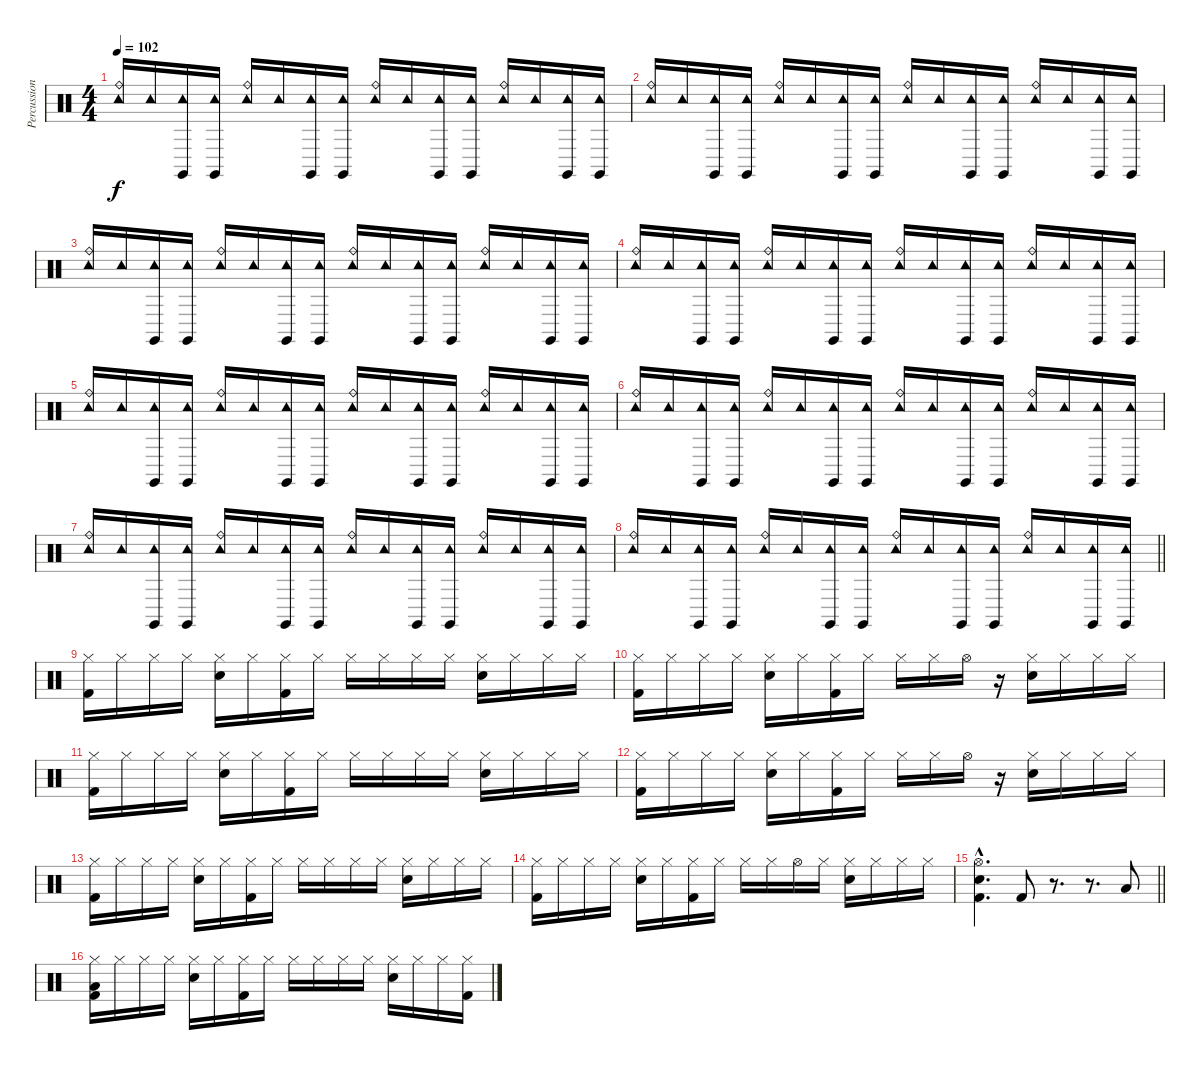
\track ("Percussions" "Percussion") {instrument percussion}
\staff {score}
\articulation defaults
\ts (4 4)
\tempo 102
\clef neutral
\ks c
("Tambourine (hit)" "Ride (bell)").16{dy f} "Tambourine (hit)".16 ("Tambourine (hit)" "Claves (hit)").16 ("Tambourine (hit)" "Claves (hit)").16 ("Tambourine (hit)" "Ride (bell)").16 "Tambourine (hit)".16 ("Tambourine (hit)" "Claves (hit)").16 ("Tambourine (hit)" "Claves (hit)").16 ("Tambourine (hit)" "Ride (bell)").16 "Tambourine (hit)".16 ("Tambourine (hit)" "Claves (hit)").16 ("Tambourine (hit)" "Claves (hit)").16 ("Tambourine (hit)" "Ride (bell)").16 "Tambourine (hit)".16 ("Tambourine (hit)" "Claves (hit)").16 ("Tambourine (hit)" "Claves (hit)").16 |
("Tambourine (hit)" "Ride (bell)").16 "Tambourine (hit)".16 ("Tambourine (hit)" "Claves (hit)").16 ("Tambourine (hit)" "Claves (hit)").16 ("Tambourine (hit)" "Ride (bell)").16 "Tambourine (hit)".16 ("Tambourine (hit)" "Claves (hit)").16 ("Tambourine (hit)" "Claves (hit)").16 ("Tambourine (hit)" "Ride (bell)").16 "Tambourine (hit)".16 ("Tambourine (hit)" "Claves (hit)").16 ("Tambourine (hit)" "Claves (hit)").16 ("Tambourine (hit)" "Ride (bell)").16 "Tambourine (hit)".16 ("Tambourine (hit)" "Claves (hit)").16 ("Tambourine (hit)" "Claves (hit)").16 |
("Tambourine (hit)" "Ride (bell)").16 "Tambourine (hit)".16 ("Tambourine (hit)" "Claves (hit)").16 ("Tambourine (hit)" "Claves (hit)").16 ("Tambourine (hit)" "Ride (bell)").16 "Tambourine (hit)".16 ("Tambourine (hit)" "Claves (hit)").16 ("Tambourine (hit)" "Claves (hit)").16 ("Tambourine (hit)" "Ride (bell)").16 "Tambourine (hit)".16 ("Tambourine (hit)" "Claves (hit)").16 ("Tambourine (hit)" "Claves (hit)").16 ("Tambourine (hit)" "Ride (bell)").16 "Tambourine (hit)".16 ("Tambourine (hit)" "Claves (hit)").16 ("Tambourine (hit)" "Claves (hit)").16 |
("Tambourine (hit)" "Ride (bell)").16 "Tambourine (hit)".16 ("Tambourine (hit)" "Claves (hit)").16 ("Tambourine (hit)" "Claves (hit)").16 ("Tambourine (hit)" "Ride (bell)").16 "Tambourine (hit)".16 ("Tambourine (hit)" "Claves (hit)").16 ("Tambourine (hit)" "Claves (hit)").16 ("Tambourine (hit)" "Ride (bell)").16 "Tambourine (hit)".16 ("Tambourine (hit)" "Claves (hit)").16 ("Tambourine (hit)" "Claves (hit)").16 ("Tambourine (hit)" "Ride (bell)").16 "Tambourine (hit)".16 ("Tambourine (hit)" "Claves (hit)").16 ("Tambourine (hit)" "Claves (hit)").16 |
("Tambourine (hit)" "Ride (bell)").16 "Tambourine (hit)".16 ("Tambourine (hit)" "Claves (hit)").16 ("Tambourine (hit)" "Claves (hit)").16 ("Tambourine (hit)" "Ride (bell)").16 "Tambourine (hit)".16 ("Tambourine (hit)" "Claves (hit)").16 ("Tambourine (hit)" "Claves (hit)").16 ("Tambourine (hit)" "Ride (bell)").16 "Tambourine (hit)".16 ("Tambourine (hit)" "Claves (hit)").16 ("Tambourine (hit)" "Claves (hit)").16 ("Tambourine (hit)" "Ride (bell)").16 "Tambourine (hit)".16 ("Tambourine (hit)" "Claves (hit)").16 ("Tambourine (hit)" "Claves (hit)").16 |
("Tambourine (hit)" "Ride (bell)").16 "Tambourine (hit)".16 ("Tambourine (hit)" "Claves (hit)").16 ("Tambourine (hit)" "Claves (hit)").16 ("Tambourine (hit)" "Ride (bell)").16 "Tambourine (hit)".16 ("Tambourine (hit)" "Claves (hit)").16 ("Tambourine (hit)" "Claves (hit)").16 ("Tambourine (hit)" "Ride (bell)").16 "Tambourine (hit)".16 ("Tambourine (hit)" "Claves (hit)").16 ("Tambourine (hit)" "Claves (hit)").16 ("Tambourine (hit)" "Ride (bell)").16 "Tambourine (hit)".16 ("Tambourine (hit)" "Claves (hit)").16 ("Tambourine (hit)" "Claves (hit)").16 |
("Tambourine (hit)" "Ride (bell)").16 "Tambourine (hit)".16 ("Tambourine (hit)" "Claves (hit)").16 ("Tambourine (hit)" "Claves (hit)").16 ("Tambourine (hit)" "Ride (bell)").16 "Tambourine (hit)".16 ("Tambourine (hit)" "Claves (hit)").16 ("Tambourine (hit)" "Claves (hit)").16 ("Tambourine (hit)" "Ride (bell)").16 "Tambourine (hit)".16 ("Tambourine (hit)" "Claves (hit)").16 ("Tambourine (hit)" "Claves (hit)").16 ("Tambourine (hit)" "Ride (bell)").16 "Tambourine (hit)".16 ("Tambourine (hit)" "Claves (hit)").16 ("Tambourine (hit)" "Claves (hit)").16 |
\barLineRight lightlight
("Tambourine (hit)" "Ride (bell)").16 "Tambourine (hit)".16 ("Tambourine (hit)" "Claves (hit)").16 ("Tambourine (hit)" "Claves (hit)").16 ("Tambourine (hit)" "Ride (bell)").16 "Tambourine (hit)".16 ("Tambourine (hit)" "Claves (hit)").16 ("Tambourine (hit)" "Claves (hit)").16 ("Tambourine (hit)" "Ride (bell)").16 "Tambourine (hit)".16 ("Tambourine (hit)" "Claves (hit)").16 ("Tambourine (hit)" "Claves (hit)").16 ("Tambourine (hit)" "Ride (bell)").16 "Tambourine (hit)".16 ("Tambourine (hit)" "Claves (hit)").16 ("Tambourine (hit)" "Claves (hit)").16 |
("Hi-Hat (closed)" "Kick (hit) 2").16 "Hi-Hat (closed)".16 "Hi-Hat (closed)".16 "Hi-Hat (closed)".16 ("Snare (hit) 2" "Hi-Hat (closed)").16 "Hi-Hat (closed)".16 ("Hi-Hat (closed)" "Kick (hit) 2").16 "Hi-Hat (closed)".16 "Hi-Hat (closed)".16 "Hi-Hat (closed)".16 "Hi-Hat (closed)".16 "Hi-Hat (closed)".16 ("Snare (hit) 2" "Hi-Hat (closed)").16 "Hi-Hat (closed)".16 "Hi-Hat (closed)".16 "Hi-Hat (closed)".16 |
("Hi-Hat (closed)" "Kick (hit) 2").16 "Hi-Hat (closed)".16 "Hi-Hat (closed)".16 "Hi-Hat (closed)".16 ("Snare (hit) 2" "Hi-Hat (closed)").16 "Hi-Hat (closed)".16 ("Hi-Hat (closed)" "Kick (hit) 2").16 "Hi-Hat (closed)".16 "Hi-Hat (closed)".16 "Hi-Hat (closed)".16 "Hi-Hat (open)".16 r.16 ("Snare (hit) 2" "Hi-Hat (closed)").16 "Hi-Hat (closed)".16 "Hi-Hat (closed)".16 "Hi-Hat (closed)".16 |
("Hi-Hat (closed)" "Kick (hit) 2").16 "Hi-Hat (closed)".16 "Hi-Hat (closed)".16 "Hi-Hat (closed)".16 ("Snare (hit) 2" "Hi-Hat (closed)").16 "Hi-Hat (closed)".16 ("Hi-Hat (closed)" "Kick (hit) 2").16 "Hi-Hat (closed)".16 "Hi-Hat (closed)".16 "Hi-Hat (closed)".16 "Hi-Hat (closed)".16 "Hi-Hat (closed)".16 ("Snare (hit) 2" "Hi-Hat (closed)").16 "Hi-Hat (closed)".16 "Hi-Hat (closed)".16 "Hi-Hat (closed)".16 |
("Hi-Hat (closed)" "Kick (hit) 2").16 "Hi-Hat (closed)".16 "Hi-Hat (closed)".16 "Hi-Hat (closed)".16 ("Snare (hit) 2" "Hi-Hat (closed)").16 "Hi-Hat (closed)".16 ("Hi-Hat (closed)" "Kick (hit) 2").16 "Hi-Hat (closed)".16 "Hi-Hat (closed)".16 "Hi-Hat (closed)".16 "Hi-Hat (open)".16 r.16 ("Snare (hit) 2" "Hi-Hat (closed)").16 "Hi-Hat (closed)".16 "Hi-Hat (closed)".16 "Hi-Hat (closed)".16 |
("Hi-Hat (closed)" "Kick (hit) 2").16 "Hi-Hat (closed)".16 "Hi-Hat (closed)".16 "Hi-Hat (closed)".16 ("Snare (hit) 2" "Hi-Hat (closed)").16 "Hi-Hat (closed)".16 ("Hi-Hat (closed)" "Kick (hit) 2").16 "Hi-Hat (closed)".16 "Hi-Hat (closed)".16 "Hi-Hat (closed)".16 "Hi-Hat (closed)".16 "Hi-Hat (closed)".16 ("Snare (hit) 2" "Hi-Hat (closed)").16 "Hi-Hat (closed)".16 "Hi-Hat (closed)".16 "Hi-Hat (closed)".16 |
("Hi-Hat (closed)" "Kick (hit) 2").16 "Hi-Hat (closed)".16 "Hi-Hat (closed)".16 "Hi-Hat (closed)".16 ("Snare (hit) 2" "Hi-Hat (closed)").16 "Hi-Hat (closed)".16 ("Hi-Hat (closed)" "Kick (hit) 2").16 "Hi-Hat (closed)".16 "Hi-Hat (closed)".16 "Hi-Hat (closed)".16 "Hi-Hat (open)".16 "Hi-Hat (closed)".16 ("Snare (hit) 2" "Hi-Hat (closed)").16 "Hi-Hat (closed)".16 "Hi-Hat (closed)".16 "Hi-Hat (closed)".16 |
\barLineRight lightlight
("Hi-Hat (open)"{hac} "Snare (hit) 2"{hac} "Kick (hit) 2"{hac}).4{d} "Kick (hit) 2".8 r.8{d} r.8{d} "Low Floor Tom (hit)".8 |
("Low Floor Tom (hit)" "Hi-Hat (closed)" "Kick (hit) 2").16 "Hi-Hat (closed)".16 "Hi-Hat (closed)".16 "Hi-Hat (closed)".16 ("Snare (hit) 2" "Hi-Hat (closed)").16 "Hi-Hat (closed)".16 ("Hi-Hat (closed)" "Kick (hit) 2").16 "Hi-Hat (closed)".16 "Hi-Hat (closed)".16 "Hi-Hat (closed)".16 "Hi-Hat (closed)".16 "Hi-Hat (closed)".16 ("Snare (hit) 2" "Hi-Hat (closed)").16 "Hi-Hat (closed)".16 "Hi-Hat (closed)".16 ("Hi-Hat (closed)" "Kick (hit) 2").16
